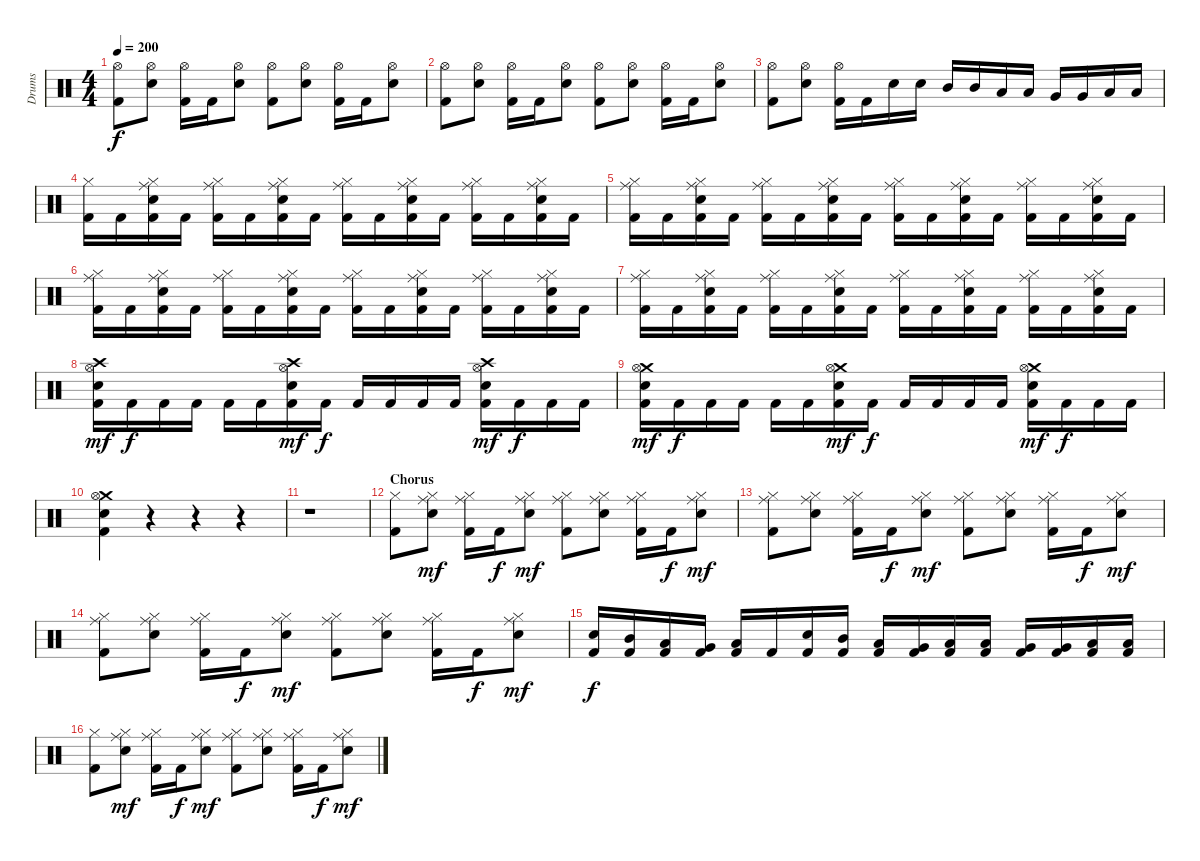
\track ("Drums" "Drums") {instrument percussion}
\staff {score}
\articulation defaults
\ts (4 4)
\tempo 200
\clef neutral
\ks c
("Hi-Hat (open)" "Kick (hit) 2").8{dy f} ("Hi-Hat (open)" "Snare (hit) 2").8 ("Hi-Hat (open)" "Kick (hit) 2").16 "Kick (hit) 2".16 ("Hi-Hat (open)" "Snare (hit) 2").8 ("Hi-Hat (open)" "Kick (hit) 2").8 ("Hi-Hat (open)" "Snare (hit) 2").8 ("Hi-Hat (open)" "Kick (hit) 2").16 "Kick (hit) 2".16 ("Hi-Hat (open)" "Snare (hit) 2").8 |
("Hi-Hat (open)" "Kick (hit) 2").8 ("Hi-Hat (open)" "Snare (hit) 2").8 ("Hi-Hat (open)" "Kick (hit) 2").16 "Kick (hit) 2".16 ("Hi-Hat (open)" "Snare (hit) 2").8 ("Hi-Hat (open)" "Kick (hit) 2").8 ("Hi-Hat (open)" "Snare (hit) 2").8 ("Hi-Hat (open)" "Kick (hit) 2").16 "Kick (hit) 2".16 ("Hi-Hat (open)" "Snare (hit) 2").8 |
("Hi-Hat (open)" "Kick (hit) 2").8 ("Hi-Hat (open)" "Snare (hit) 2").8 ("Hi-Hat (open)" "Kick (hit) 2").16 "Kick (hit) 2".16 "Snare (hit) 2".16 "Snare (hit) 2".16 "Mid Tom (hit)".16 "Mid Tom (hit)".16 "Low Tom (hit)".16 "Low Tom (hit)".16 "Very Low Tom (hit)".16 "Very Low Tom (hit)".16 "Low Floor Tom (hit)".16 "Low Floor Tom (hit)".16 |
("Hi-Hat (closed)" "Kick (hit) 2").16 "Kick (hit) 2".16 ("Hi-Hat (closed)" "Ride (middle)" "Snare (hit) 2" "Kick (hit) 2").16 "Kick (hit) 2".16 ("Hi-Hat (closed)" "Ride (middle)" "Kick (hit) 2").16 "Kick (hit) 2".16 ("Hi-Hat (closed)" "Ride (middle)" "Snare (hit) 2" "Kick (hit) 2").16 "Kick (hit) 2".16 ("Hi-Hat (closed)" "Ride (middle)" "Kick (hit) 2").16 "Kick (hit) 2".16 ("Hi-Hat (closed)" "Ride (middle)" "Snare (hit) 2" "Kick (hit) 2").16 "Kick (hit) 2".16 ("Hi-Hat (closed)" "Ride (middle)" "Kick (hit) 2").16 "Kick (hit) 2".16 ("Hi-Hat (closed)" "Ride (middle)" "Snare (hit) 2" "Kick (hit) 2").16 "Kick (hit) 2".16 |
("Hi-Hat (closed)" "Ride (middle)" "Kick (hit) 2").16 "Kick (hit) 2".16 ("Hi-Hat (closed)" "Ride (middle)" "Snare (hit) 2" "Kick (hit) 2").16 "Kick (hit) 2".16 ("Hi-Hat (closed)" "Ride (middle)" "Kick (hit) 2").16 "Kick (hit) 2".16 ("Hi-Hat (closed)" "Ride (middle)" "Snare (hit) 2" "Kick (hit) 2").16 "Kick (hit) 2".16 ("Hi-Hat (closed)" "Ride (middle)" "Kick (hit) 2").16 "Kick (hit) 2".16 ("Hi-Hat (closed)" "Ride (middle)" "Snare (hit) 2" "Kick (hit) 2").16 "Kick (hit) 2".16 ("Hi-Hat (closed)" "Ride (middle)" "Kick (hit) 2").16 "Kick (hit) 2".16 ("Hi-Hat (closed)" "Ride (middle)" "Snare (hit) 2" "Kick (hit) 2").16 "Kick (hit) 2".16 |
("Hi-Hat (closed)" "Ride (middle)" "Kick (hit) 2").16 "Kick (hit) 2".16 ("Hi-Hat (closed)" "Ride (middle)" "Snare (hit) 2" "Kick (hit) 2").16 "Kick (hit) 2".16 ("Hi-Hat (closed)" "Ride (middle)" "Kick (hit) 2").16 "Kick (hit) 2".16 ("Hi-Hat (closed)" "Ride (middle)" "Snare (hit) 2" "Kick (hit) 2").16 "Kick (hit) 2".16 ("Hi-Hat (closed)" "Ride (middle)" "Kick (hit) 2").16 "Kick (hit) 2".16 ("Hi-Hat (closed)" "Ride (middle)" "Snare (hit) 2" "Kick (hit) 2").16 "Kick (hit) 2".16 ("Hi-Hat (closed)" "Ride (middle)" "Kick (hit) 2").16 "Kick (hit) 2".16 ("Hi-Hat (closed)" "Ride (middle)" "Snare (hit) 2" "Kick (hit) 2").16 "Kick (hit) 2".16 |
("Hi-Hat (closed)" "Ride (middle)" "Kick (hit) 2").16 "Kick (hit) 2".16 ("Hi-Hat (closed)" "Ride (middle)" "Snare (hit) 2" "Kick (hit) 2").16 "Kick (hit) 2".16 ("Hi-Hat (closed)" "Ride (middle)" "Kick (hit) 2").16 "Kick (hit) 2".16 ("Hi-Hat (closed)" "Ride (middle)" "Snare (hit) 2" "Kick (hit) 2").16 "Kick (hit) 2".16 ("Hi-Hat (closed)" "Ride (middle)" "Kick (hit) 2").16 "Kick (hit) 2".16 ("Hi-Hat (closed)" "Ride (middle)" "Snare (hit) 2" "Kick (hit) 2").16 "Kick (hit) 2".16 ("Hi-Hat (closed)" "Ride (middle)" "Kick (hit) 2").16 "Kick (hit) 2".16 ("Hi-Hat (closed)" "Ride (middle)" "Snare (hit) 2" "Kick (hit) 2").16 "Kick (hit) 2".16 |
("Crash high (hit)" "Hi-Hat (open)" "Snare (hit) 2" "Kick (hit) 2").16{dy mf} "Kick (hit) 2".16{dy f} "Kick (hit) 2".16 "Kick (hit) 2".16 "Kick (hit) 2".16 "Kick (hit) 2".16 ("Crash high (hit)" "Hi-Hat (open)" "Snare (hit) 2" "Kick (hit) 2").16{dy mf} "Kick (hit) 2".16{dy f} "Kick (hit) 2".16 "Kick (hit) 2".16 "Kick (hit) 2".16 "Kick (hit) 2".16 ("Crash high (hit)" "Hi-Hat (open)" "Snare (hit) 2" "Kick (hit) 2").16{dy mf} "Kick (hit) 2".16{dy f} "Kick (hit) 2".16 "Kick (hit) 2".16 |
("Crash medium (hit)" "Hi-Hat (open)" "Snare (hit) 2" "Kick (hit) 2").16{dy mf} "Kick (hit) 2".16{dy f} "Kick (hit) 2".16 "Kick (hit) 2".16 "Kick (hit) 2".16 "Kick (hit) 2".16 ("Crash medium (hit)" "Hi-Hat (open)" "Snare (hit) 2" "Kick (hit) 2").16{dy mf} "Kick (hit) 2".16{dy f} "Kick (hit) 2".16 "Kick (hit) 2".16 "Kick (hit) 2".16 "Kick (hit) 2".16 ("Crash medium (hit)" "Hi-Hat (open)" "Snare (hit) 2" "Kick (hit) 2").16{dy mf} "Kick (hit) 2".16{dy f} "Kick (hit) 2".16 "Kick (hit) 2".16 |
("Crash medium (hit)" "Hi-Hat (open)" "Snare (hit) 2" "Kick (hit) 2").4 r.4 r.4 r.4 |
r.1 |
\section ("" "Chorus")
("Hi-Hat (closed)" "Kick (hit) 2").8 ("Hi-Hat (closed)" "Ride (middle)" "Snare (hit) 2").8{dy mf} ("Hi-Hat (closed)" "Ride (middle)" "Kick (hit) 2").16 "Kick (hit) 2".16{dy f} ("Hi-Hat (closed)" "Ride (middle)" "Snare (hit) 2").8{dy mf} ("Hi-Hat (closed)" "Ride (middle)" "Kick (hit) 2").8 ("Hi-Hat (closed)" "Ride (middle)" "Snare (hit) 2").8 ("Hi-Hat (closed)" "Ride (middle)" "Kick (hit) 2").16 "Kick (hit) 2".16{dy f} ("Hi-Hat (closed)" "Ride (middle)" "Snare (hit) 2").8{dy mf} |
("Hi-Hat (closed)" "Ride (middle)" "Kick (hit) 2").8 ("Hi-Hat (closed)" "Ride (middle)" "Snare (hit) 2").8 ("Hi-Hat (closed)" "Ride (middle)" "Kick (hit) 2").16 "Kick (hit) 2".16{dy f} ("Hi-Hat (closed)" "Ride (middle)" "Snare (hit) 2").8{dy mf} ("Hi-Hat (closed)" "Ride (middle)" "Kick (hit) 2").8 ("Hi-Hat (closed)" "Ride (middle)" "Snare (hit) 2").8 ("Hi-Hat (closed)" "Ride (middle)" "Kick (hit) 2").16 "Kick (hit) 2".16{dy f} ("Hi-Hat (closed)" "Ride (middle)" "Snare (hit) 2").8{dy mf} |
("Hi-Hat (closed)" "Ride (middle)" "Kick (hit) 2").8 ("Hi-Hat (closed)" "Ride (middle)" "Snare (hit) 2").8 ("Hi-Hat (closed)" "Ride (middle)" "Kick (hit) 2").16 "Kick (hit) 2".16{dy f} ("Hi-Hat (closed)" "Ride (middle)" "Snare (hit) 2").8{dy mf} ("Hi-Hat (closed)" "Ride (middle)" "Kick (hit) 2").8 ("Hi-Hat (closed)" "Ride (middle)" "Snare (hit) 2").8 ("Hi-Hat (closed)" "Ride (middle)" "Kick (hit) 2").16 "Kick (hit) 2".16{dy f} ("Hi-Hat (closed)" "Ride (middle)" "Snare (hit) 2").8{dy mf} |
("Snare (hit) 2" "Kick (hit) 2").16{dy f} ("Mid Tom (hit)" "Kick (hit) 2").16 ("Low Tom (hit)" "Kick (hit) 2").16 ("Very Low Tom (hit)" "Kick (hit) 2").16 ("Low Floor Tom (hit)" "Kick (hit) 2").16 "Kick (hit) 2".16 ("Snare (hit) 2" "Kick (hit) 2").16 ("Mid Tom (hit)" "Kick (hit) 2").16 ("Low Tom (hit)" "Kick (hit) 2").16 ("Very Low Tom (hit)" "Kick (hit) 2").16 ("Low Tom (hit)" "Kick (hit) 2").16 ("Low Tom (hit)" "Kick (hit) 2").16 ("Very Low Tom (hit)" "Kick (hit) 2").16 ("Very Low Tom (hit)" "Kick (hit) 2").16 ("Low Floor Tom (hit)" "Kick (hit) 2").16 ("Low Floor Tom (hit)" "Kick (hit) 2").16 |
("Hi-Hat (closed)" "Kick (hit) 2").8 ("Hi-Hat (closed)" "Ride (middle)" "Snare (hit) 2").8{dy mf} ("Hi-Hat (closed)" "Ride (middle)" "Kick (hit) 2").16 "Kick (hit) 2".16{dy f} ("Hi-Hat (closed)" "Ride (middle)" "Snare (hit) 2").8{dy mf} ("Hi-Hat (closed)" "Ride (middle)" "Kick (hit) 2").8 ("Hi-Hat (closed)" "Ride (middle)" "Snare (hit) 2").8 ("Hi-Hat (closed)" "Ride (middle)" "Kick (hit) 2").16 "Kick (hit) 2".16{dy f} ("Hi-Hat (closed)" "Ride (middle)" "Snare (hit) 2").8{dy mf}
